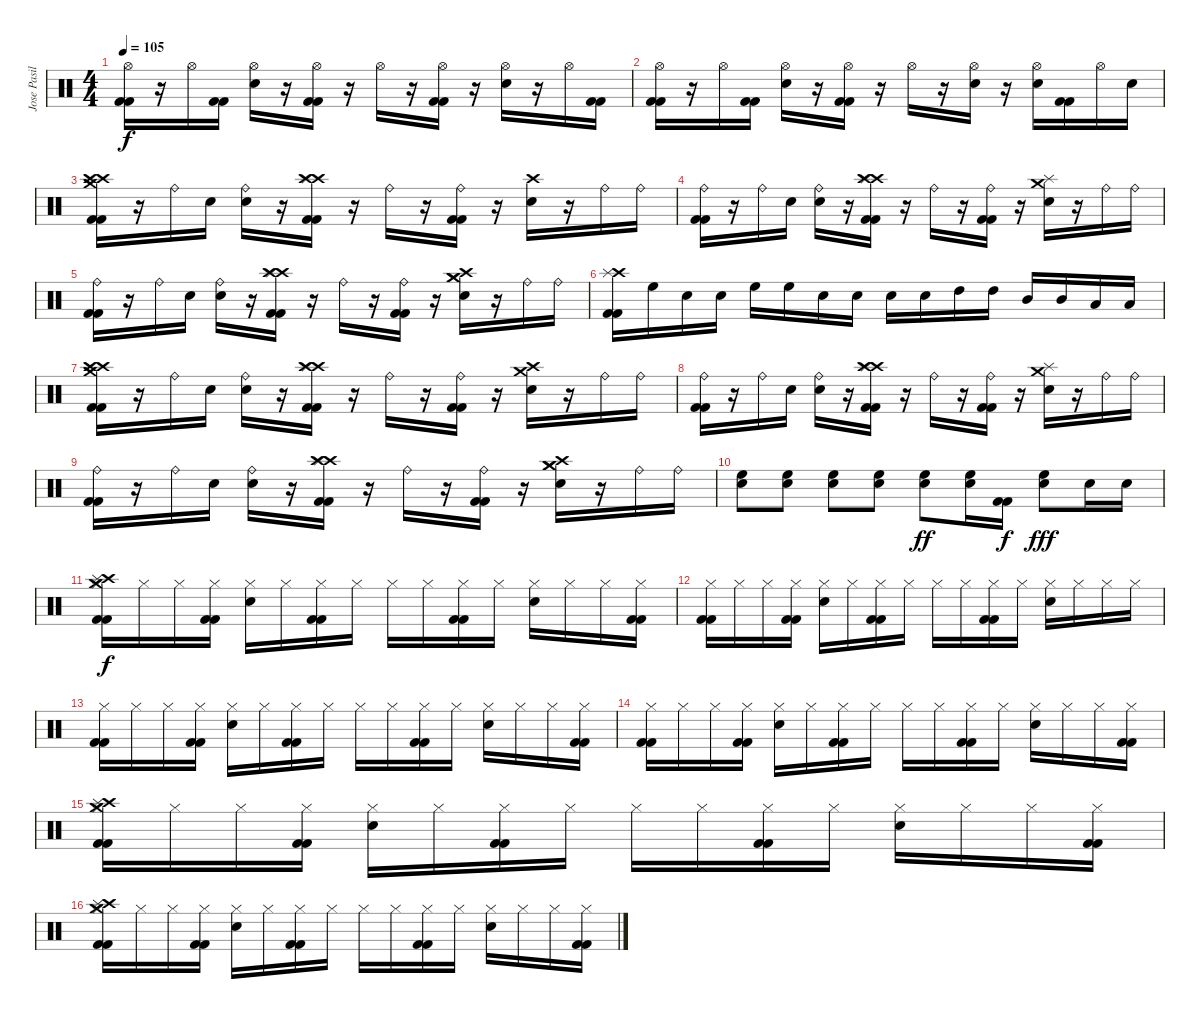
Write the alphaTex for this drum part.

\track ("Jose Pasillas" "Jose Pasil") {instrument percussion}
\staff {score}
\articulation defaults
\ts (4 4)
\tempo 105
\clef neutral
\ks c
("Hi-Hat (open)" "Kick (hit) 2" "Kick (hit) 2").16{dy f} r.16 "Hi-Hat (open)".16 ("Kick (hit) 2" "Kick (hit) 2").16 ("Hi-Hat (open)" "Electric Snare (hit)").16 r.16 ("Hi-Hat (open)" "Kick (hit) 2" "Kick (hit) 2").16 r.16 "Hi-Hat (open)".16 r.16 ("Hi-Hat (open)" "Kick (hit) 2" "Kick (hit) 2").16 r.16 ("Hi-Hat (open)" "Electric Snare (hit)").16 r.16 "Hi-Hat (open)".16 ("Kick (hit) 2" "Kick (hit) 2").16 |
("Hi-Hat (open)" "Kick (hit) 2" "Kick (hit) 2").16 r.16 "Hi-Hat (open)".16 ("Kick (hit) 2" "Kick (hit) 2").16 ("Hi-Hat (open)" "Electric Snare (hit)").16 r.16 ("Hi-Hat (open)" "Kick (hit) 2" "Kick (hit) 2").16 r.16 "Hi-Hat (open)".16 r.16 ("Hi-Hat (open)" "Electric Snare (hit)").16 r.16 ("Hi-Hat (open)" "Electric Snare (hit)").16 ("Kick (hit) 2" "Kick (hit) 2").16 "Hi-Hat (open)".16 "Electric Snare (hit)".16 |
("Crash high (hit)" "Crash high (hit)" "Crash medium (hit)" "Kick (hit) 2" "Kick (hit) 2").16 r.16 "Ride (bell)".16 "Electric Snare (hit)".16 ("Ride (bell)" "Electric Snare (hit)").16 r.16 ("Crash high (hit)" "Crash high (hit)" "Splash (hit)" "Kick (hit) 2" "Kick (hit) 2").16 r.16 "Ride (bell)".16 r.16 ("Ride (bell)" "Kick (hit) 2" "Kick (hit) 2").16 r.16 ("Crash high (hit)" "Electric Snare (hit)").16 r.16 "Ride (bell)".16 "Ride (bell)".16 |
("Ride (bell)" "Kick (hit) 2" "Kick (hit) 2").16 r.16 "Ride (bell)".16 "Electric Snare (hit)".16 ("Ride (bell)" "Electric Snare (hit)").16 r.16 ("Crash high (hit)" "Crash high (hit)" "Splash (hit)" "Kick (hit) 2" "Kick (hit) 2").16 r.16 "Ride (bell)".16 r.16 ("Ride (bell)" "Kick (hit) 2" "Kick (hit) 2").16 r.16 ("Crash medium (hit)" "Splash (hit)" "Electric Snare (hit)").16 r.16 "Ride (bell)".16 "Ride (bell)".16 |
("Ride (bell)" "Kick (hit) 2" "Kick (hit) 2").16 r.16 "Ride (bell)".16 "Electric Snare (hit)".16 ("Ride (bell)" "Electric Snare (hit)").16 r.16 ("Crash high (hit)" "Crash high (hit)" "Splash (hit)" "Kick (hit) 2" "Kick (hit) 2").16 r.16 "Ride (bell)".16 r.16 ("Ride (bell)" "Kick (hit) 2" "Kick (hit) 2").16 r.16 ("Crash high (hit)" "Crash medium (hit)" "Crash medium (hit)" "Electric Snare (hit)").16 r.16 "Ride (bell)".16 "Ride (bell)".16 |
("Crash high (hit)" "Splash (hit)" "Kick (hit) 2" "Kick (hit) 2").16 "High Floor Tom (hit)".16 "Electric Snare (hit)".16 "Electric Snare (hit)".16 "High Floor Tom (hit)".16 "High Floor Tom (hit)".16 "Electric Snare (hit)".16 "Electric Snare (hit)".16 "Electric Snare (hit)".16 "Electric Snare (hit)".16 "High Tom (hit)".16 "High Tom (hit)".16 "Mid Tom (hit)".16 "Mid Tom (hit)".16 "Low Tom (hit)".16 "Low Tom (hit)".16 |
("Crash high (hit)" "Crash high (hit)" "Crash medium (hit)" "Kick (hit) 2" "Kick (hit) 2").16 r.16 "Ride (bell)".16 "Electric Snare (hit)".16 ("Ride (bell)" "Electric Snare (hit)").16 r.16 ("Crash high (hit)" "Crash high (hit)" "Splash (hit)" "Kick (hit) 2" "Kick (hit) 2").16 r.16 "Ride (bell)".16 r.16 ("Ride (bell)" "Kick (hit) 2" "Kick (hit) 2").16 r.16 ("Crash high (hit)" "Crash medium (hit)" "Electric Snare (hit)").16 r.16 "Ride (bell)".16 "Ride (bell)".16 |
("Ride (bell)" "Kick (hit) 2" "Kick (hit) 2").16 r.16 "Ride (bell)".16 "Electric Snare (hit)".16 ("Ride (bell)" "Electric Snare (hit)").16 r.16 ("Crash high (hit)" "Crash high (hit)" "Splash (hit)" "Kick (hit) 2" "Kick (hit) 2").16 r.16 "Ride (bell)".16 r.16 ("Ride (bell)" "Kick (hit) 2" "Kick (hit) 2").16 r.16 ("Crash medium (hit)" "Splash (hit)" "Electric Snare (hit)").16 r.16 "Ride (bell)".16 "Ride (bell)".16 |
("Ride (bell)" "Kick (hit) 2" "Kick (hit) 2").16 r.16 "Ride (bell)".16 "Electric Snare (hit)".16 ("Ride (bell)" "Electric Snare (hit)").16 r.16 ("Crash high (hit)" "Crash high (hit)" "Splash (hit)" "Kick (hit) 2" "Kick (hit) 2").16 r.16 "Ride (bell)".16 r.16 ("Ride (bell)" "Kick (hit) 2" "Kick (hit) 2").16 r.16 ("Crash high (hit)" "Crash medium (hit)" "Crash medium (hit)" "Electric Snare (hit)").16 r.16 "Ride (bell)".16 "Ride (bell)".16 |
("High Floor Tom (hit)" "Electric Snare (hit)").8 ("High Floor Tom (hit)" "Electric Snare (hit)").8 ("High Floor Tom (hit)" "Electric Snare (hit)").8 ("High Floor Tom (hit)" "Electric Snare (hit)").8 ("High Floor Tom (hit)" "Electric Snare (hit)").8{dy ff} ("High Floor Tom (hit)" "Electric Snare (hit)").16 ("Kick (hit) 2" "Kick (hit) 2").16{dy f} ("High Floor Tom (hit)" "Electric Snare (hit)").8{dy fff} "Electric Snare (hit)".16 "Electric Snare (hit)".16 |
("Hi-Hat (closed)" "Crash medium (hit)" "Crash high (hit)" "Splash (hit)" "Kick (hit) 2" "Kick (hit) 2").16{dy f} "Hi-Hat (closed)".16 "Hi-Hat (closed)".16 ("Hi-Hat (closed)" "Kick (hit) 2" "Kick (hit) 2").16 ("Hi-Hat (closed)" "Electric Snare (hit)").16 "Hi-Hat (closed)".16 ("Hi-Hat (closed)" "Kick (hit) 2" "Kick (hit) 2").16 "Hi-Hat (closed)".16 "Hi-Hat (closed)".16 "Hi-Hat (closed)".16 ("Hi-Hat (closed)" "Kick (hit) 2" "Kick (hit) 2").16 "Hi-Hat (closed)".16 ("Hi-Hat (closed)" "Electric Snare (hit)").16 "Hi-Hat (closed)".16 "Hi-Hat (closed)".16 ("Hi-Hat (closed)" "Kick (hit) 2" "Kick (hit) 2").16 |
("Hi-Hat (closed)" "Kick (hit) 2" "Kick (hit) 2").16 "Hi-Hat (closed)".16 "Hi-Hat (closed)".16 ("Hi-Hat (closed)" "Kick (hit) 2" "Kick (hit) 2").16 ("Hi-Hat (closed)" "Electric Snare (hit)").16 "Hi-Hat (closed)".16 ("Hi-Hat (closed)" "Kick (hit) 2" "Kick (hit) 2").16 "Hi-Hat (closed)".16 "Hi-Hat (closed)".16 "Hi-Hat (closed)".16 ("Hi-Hat (closed)" "Kick (hit) 2" "Kick (hit) 2").16 "Hi-Hat (closed)".16 ("Hi-Hat (closed)" "Electric Snare (hit)").16 "Hi-Hat (closed)".16 "Hi-Hat (closed)".16 "Hi-Hat (closed)".16 |
("Hi-Hat (closed)" "Kick (hit) 2" "Kick (hit) 2").16 "Hi-Hat (closed)".16 "Hi-Hat (closed)".16 ("Hi-Hat (closed)" "Kick (hit) 2" "Kick (hit) 2").16 ("Hi-Hat (closed)" "Electric Snare (hit)").16 "Hi-Hat (closed)".16 ("Hi-Hat (closed)" "Kick (hit) 2" "Kick (hit) 2").16 "Hi-Hat (closed)".16 "Hi-Hat (closed)".16 "Hi-Hat (closed)".16 ("Hi-Hat (closed)" "Kick (hit) 2" "Kick (hit) 2").16 "Hi-Hat (closed)".16 ("Hi-Hat (closed)" "Electric Snare (hit)").16 "Hi-Hat (closed)".16 "Hi-Hat (closed)".16 ("Hi-Hat (closed)" "Kick (hit) 2" "Kick (hit) 2").16 |
("Hi-Hat (closed)" "Kick (hit) 2" "Kick (hit) 2").16 "Hi-Hat (closed)".16 "Hi-Hat (closed)".16 ("Hi-Hat (closed)" "Kick (hit) 2" "Kick (hit) 2").16 ("Hi-Hat (closed)" "Electric Snare (hit)").16 "Hi-Hat (closed)".16 ("Hi-Hat (closed)" "Kick (hit) 2" "Kick (hit) 2").16 "Hi-Hat (closed)".16 "Hi-Hat (closed)".16 "Hi-Hat (closed)".16 ("Hi-Hat (closed)" "Kick (hit) 2" "Kick (hit) 2").16 "Hi-Hat (closed)".16 ("Hi-Hat (closed)" "Electric Snare (hit)").16 "Hi-Hat (closed)".16 "Hi-Hat (closed)".16 ("Hi-Hat (closed)" "Kick (hit) 2" "Kick (hit) 2").16 |
("Hi-Hat (closed)" "Crash medium (hit)" "Crash high (hit)" "Splash (hit)" "Kick (hit) 2" "Kick (hit) 2").16 "Hi-Hat (closed)".16 "Hi-Hat (closed)".16 ("Hi-Hat (closed)" "Kick (hit) 2" "Kick (hit) 2").16 ("Hi-Hat (closed)" "Electric Snare (hit)").16 "Hi-Hat (closed)".16 ("Hi-Hat (closed)" "Kick (hit) 2" "Kick (hit) 2").16 "Hi-Hat (closed)".16 "Hi-Hat (closed)".16 "Hi-Hat (closed)".16 ("Hi-Hat (closed)" "Kick (hit) 2" "Kick (hit) 2").16 "Hi-Hat (closed)".16 ("Hi-Hat (closed)" "Electric Snare (hit)").16 "Hi-Hat (closed)".16 "Hi-Hat (closed)".16 ("Hi-Hat (closed)" "Kick (hit) 2" "Kick (hit) 2").16 |
("Hi-Hat (closed)" "Crash medium (hit)" "Crash high (hit)" "Splash (hit)" "Kick (hit) 2" "Kick (hit) 2").16 "Hi-Hat (closed)".16 "Hi-Hat (closed)".16 ("Hi-Hat (closed)" "Kick (hit) 2" "Kick (hit) 2").16 ("Hi-Hat (closed)" "Electric Snare (hit)").16 "Hi-Hat (closed)".16 ("Hi-Hat (closed)" "Kick (hit) 2" "Kick (hit) 2").16 "Hi-Hat (closed)".16 "Hi-Hat (closed)".16 "Hi-Hat (closed)".16 ("Hi-Hat (closed)" "Kick (hit) 2" "Kick (hit) 2").16 "Hi-Hat (closed)".16 ("Hi-Hat (closed)" "Electric Snare (hit)").16 "Hi-Hat (closed)".16 "Hi-Hat (closed)".16 ("Hi-Hat (closed)" "Kick (hit) 2" "Kick (hit) 2").16
